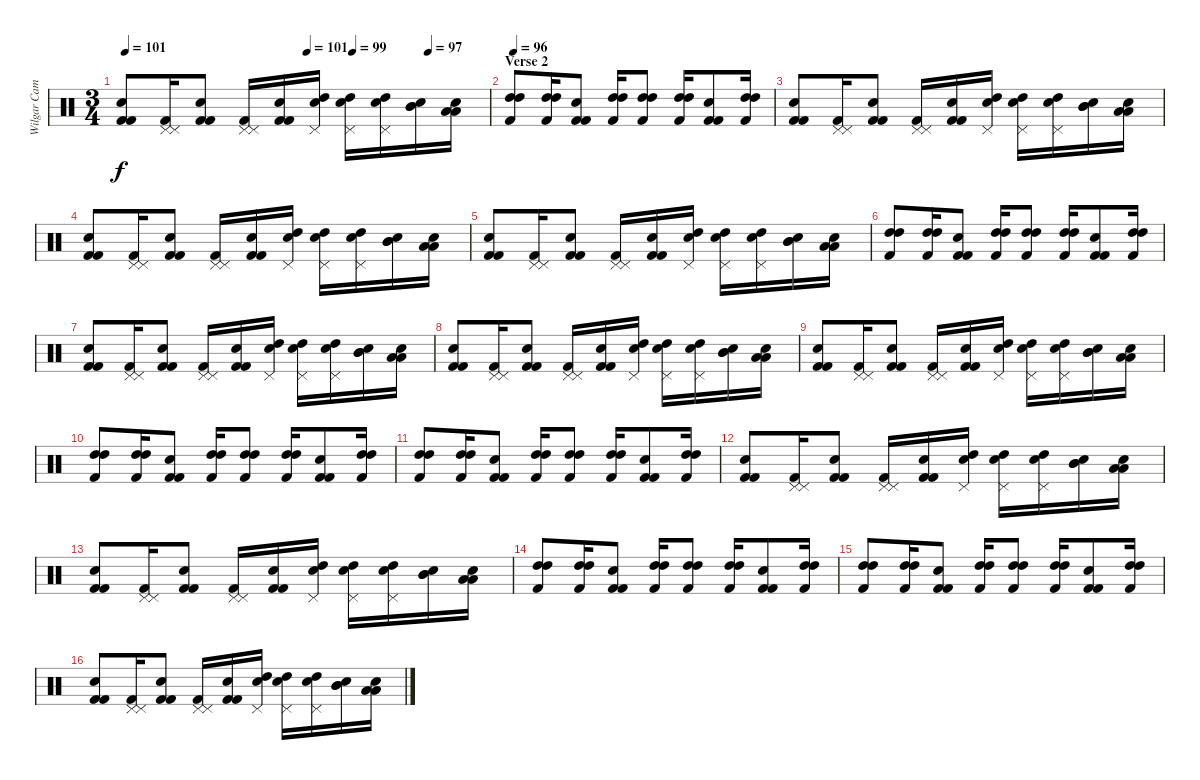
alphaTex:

\track ("Wilgar Campbell" "Wilgar Cam") {instrument percussion}
\staff {score}
\articulation defaults
\ts (3 4)
\tempo 101
\tempo (101 0.5)
\tempo (99 0.625)
\tempo (97 0.8333333333333334)
\clef neutral
\ks c
("Electric Snare (hit)" "Kick (hit) 2" "Kick (hit) 2").8{dy f} ("Pedal Hi-Hat (hit)" "Pedal Hi-Hat (hit)" "Kick (hit) 2").16 ("Snare (hit) 2" "Kick (hit) 2" "Kick (hit) 2").8 ("Pedal Hi-Hat (hit)" "Pedal Hi-Hat (hit)" "Kick (hit) 2").16 ("Snare (hit) 2" "Kick (hit) 2" "Kick (hit) 2").16 ("Electric Snare (hit)" "Pedal Hi-Hat (hit)" "High Tom (hit)").16 ("Electric Snare (hit)" "Pedal Hi-Hat (hit)" "High Tom (hit)").16 ("Electric Snare (hit)" "Pedal Hi-Hat (hit)" "High Tom (hit)").16 ("Electric Snare (hit)" "Mid Tom (hit)" "Mid Tom (hit)").16 ("Electric Snare (hit)" "Low Tom (hit)" "Low Tom (hit)").16 |
\section ("" "Verse 2")
\tempo 96
("High Tom (hit)" "High Tom (hit)" "Kick (hit) 2").8 ("High Tom (hit)" "High Tom (hit)" "Kick (hit) 2").16 ("Snare (hit) 2" "Kick (hit) 2" "Kick (hit) 2").8 ("High Tom (hit)" "High Tom (hit)" "Kick (hit) 2").16 ("High Tom (hit)" "High Tom (hit)" "Kick (hit) 2").8 ("High Tom (hit)" "High Tom (hit)" "Kick (hit) 2").16 ("Snare (hit) 2" "Kick (hit) 2" "Kick (hit) 2").8 ("High Tom (hit)" "High Tom (hit)" "Kick (hit) 2").16 |
("Electric Snare (hit)" "Kick (hit) 2" "Kick (hit) 2").8 ("Pedal Hi-Hat (hit)" "Pedal Hi-Hat (hit)" "Kick (hit) 2").16 ("Snare (hit) 2" "Kick (hit) 2" "Kick (hit) 2").8 ("Pedal Hi-Hat (hit)" "Pedal Hi-Hat (hit)" "Kick (hit) 2").16 ("Snare (hit) 2" "Kick (hit) 2" "Kick (hit) 2").16 ("Electric Snare (hit)" "Pedal Hi-Hat (hit)" "High Tom (hit)").16 ("Electric Snare (hit)" "Pedal Hi-Hat (hit)" "High Tom (hit)").16 ("Electric Snare (hit)" "Pedal Hi-Hat (hit)" "High Tom (hit)").16 ("Electric Snare (hit)" "Mid Tom (hit)" "Mid Tom (hit)").16 ("Electric Snare (hit)" "Low Tom (hit)" "Low Tom (hit)").16 |
("Electric Snare (hit)" "Kick (hit) 2" "Kick (hit) 2").8 ("Pedal Hi-Hat (hit)" "Pedal Hi-Hat (hit)" "Kick (hit) 2").16 ("Snare (hit) 2" "Kick (hit) 2" "Kick (hit) 2").8 ("Pedal Hi-Hat (hit)" "Pedal Hi-Hat (hit)" "Kick (hit) 2").16 ("Snare (hit) 2" "Kick (hit) 2" "Kick (hit) 2").16 ("Electric Snare (hit)" "Pedal Hi-Hat (hit)" "High Tom (hit)").16 ("Electric Snare (hit)" "Pedal Hi-Hat (hit)" "High Tom (hit)").16 ("Electric Snare (hit)" "Pedal Hi-Hat (hit)" "High Tom (hit)").16 ("Electric Snare (hit)" "Mid Tom (hit)" "Mid Tom (hit)").16 ("Electric Snare (hit)" "Low Tom (hit)" "Low Tom (hit)").16 |
("Electric Snare (hit)" "Kick (hit) 2" "Kick (hit) 2").8 ("Pedal Hi-Hat (hit)" "Pedal Hi-Hat (hit)" "Kick (hit) 2").16 ("Snare (hit) 2" "Kick (hit) 2" "Kick (hit) 2").8 ("Pedal Hi-Hat (hit)" "Pedal Hi-Hat (hit)" "Kick (hit) 2").16 ("Snare (hit) 2" "Kick (hit) 2" "Kick (hit) 2").16 ("Electric Snare (hit)" "Pedal Hi-Hat (hit)" "High Tom (hit)").16 ("Electric Snare (hit)" "Pedal Hi-Hat (hit)" "High Tom (hit)").16 ("Electric Snare (hit)" "Pedal Hi-Hat (hit)" "High Tom (hit)").16 ("Electric Snare (hit)" "Mid Tom (hit)" "Mid Tom (hit)").16 ("Electric Snare (hit)" "Low Tom (hit)" "Low Tom (hit)").16 |
("High Tom (hit)" "High Tom (hit)" "Kick (hit) 2").8 ("High Tom (hit)" "High Tom (hit)" "Kick (hit) 2").16 ("Snare (hit) 2" "Kick (hit) 2" "Kick (hit) 2").8 ("High Tom (hit)" "High Tom (hit)" "Kick (hit) 2").16 ("High Tom (hit)" "High Tom (hit)" "Kick (hit) 2").8 ("High Tom (hit)" "High Tom (hit)" "Kick (hit) 2").16 ("Snare (hit) 2" "Kick (hit) 2" "Kick (hit) 2").8 ("High Tom (hit)" "High Tom (hit)" "Kick (hit) 2").16 |
("Electric Snare (hit)" "Kick (hit) 2" "Kick (hit) 2").8 ("Pedal Hi-Hat (hit)" "Pedal Hi-Hat (hit)" "Kick (hit) 2").16 ("Snare (hit) 2" "Kick (hit) 2" "Kick (hit) 2").8 ("Pedal Hi-Hat (hit)" "Pedal Hi-Hat (hit)" "Kick (hit) 2").16 ("Snare (hit) 2" "Kick (hit) 2" "Kick (hit) 2").16 ("Electric Snare (hit)" "Pedal Hi-Hat (hit)" "High Tom (hit)").16 ("Electric Snare (hit)" "Pedal Hi-Hat (hit)" "High Tom (hit)").16 ("Electric Snare (hit)" "Pedal Hi-Hat (hit)" "High Tom (hit)").16 ("Electric Snare (hit)" "Mid Tom (hit)" "Mid Tom (hit)").16 ("Electric Snare (hit)" "Low Tom (hit)" "Low Tom (hit)").16 |
("Electric Snare (hit)" "Kick (hit) 2" "Kick (hit) 2").8 ("Pedal Hi-Hat (hit)" "Pedal Hi-Hat (hit)" "Kick (hit) 2").16 ("Snare (hit) 2" "Kick (hit) 2" "Kick (hit) 2").8 ("Pedal Hi-Hat (hit)" "Pedal Hi-Hat (hit)" "Kick (hit) 2").16 ("Snare (hit) 2" "Kick (hit) 2" "Kick (hit) 2").16 ("Electric Snare (hit)" "Pedal Hi-Hat (hit)" "High Tom (hit)").16 ("Electric Snare (hit)" "Pedal Hi-Hat (hit)" "High Tom (hit)").16 ("Electric Snare (hit)" "Pedal Hi-Hat (hit)" "High Tom (hit)").16 ("Electric Snare (hit)" "Mid Tom (hit)" "Mid Tom (hit)").16 ("Electric Snare (hit)" "Low Tom (hit)" "Low Tom (hit)").16 |
("Electric Snare (hit)" "Kick (hit) 2" "Kick (hit) 2").8 ("Pedal Hi-Hat (hit)" "Pedal Hi-Hat (hit)" "Kick (hit) 2").16 ("Snare (hit) 2" "Kick (hit) 2" "Kick (hit) 2").8 ("Pedal Hi-Hat (hit)" "Pedal Hi-Hat (hit)" "Kick (hit) 2").16 ("Snare (hit) 2" "Kick (hit) 2" "Kick (hit) 2").16 ("Electric Snare (hit)" "Pedal Hi-Hat (hit)" "High Tom (hit)").16 ("Electric Snare (hit)" "Pedal Hi-Hat (hit)" "High Tom (hit)").16 ("Electric Snare (hit)" "Pedal Hi-Hat (hit)" "High Tom (hit)").16 ("Electric Snare (hit)" "Mid Tom (hit)" "Mid Tom (hit)").16 ("Electric Snare (hit)" "Low Tom (hit)" "Low Tom (hit)").16 |
("High Tom (hit)" "High Tom (hit)" "Kick (hit) 2").8 ("High Tom (hit)" "High Tom (hit)" "Kick (hit) 2").16 ("Snare (hit) 2" "Kick (hit) 2" "Kick (hit) 2").8 ("High Tom (hit)" "High Tom (hit)" "Kick (hit) 2").16 ("High Tom (hit)" "High Tom (hit)" "Kick (hit) 2").8 ("High Tom (hit)" "High Tom (hit)" "Kick (hit) 2").16 ("Snare (hit) 2" "Kick (hit) 2" "Kick (hit) 2").8 ("High Tom (hit)" "High Tom (hit)" "Kick (hit) 2").16 |
("High Tom (hit)" "High Tom (hit)" "Kick (hit) 2").8 ("High Tom (hit)" "High Tom (hit)" "Kick (hit) 2").16 ("Snare (hit) 2" "Kick (hit) 2" "Kick (hit) 2").8 ("High Tom (hit)" "High Tom (hit)" "Kick (hit) 2").16 ("High Tom (hit)" "High Tom (hit)" "Kick (hit) 2").8 ("High Tom (hit)" "High Tom (hit)" "Kick (hit) 2").16 ("Snare (hit) 2" "Kick (hit) 2" "Kick (hit) 2").8 ("High Tom (hit)" "High Tom (hit)" "Kick (hit) 2").16 |
("Electric Snare (hit)" "Kick (hit) 2" "Kick (hit) 2").8 ("Pedal Hi-Hat (hit)" "Pedal Hi-Hat (hit)" "Kick (hit) 2").16 ("Snare (hit) 2" "Kick (hit) 2" "Kick (hit) 2").8 ("Pedal Hi-Hat (hit)" "Pedal Hi-Hat (hit)" "Kick (hit) 2").16 ("Snare (hit) 2" "Kick (hit) 2" "Kick (hit) 2").16 ("Electric Snare (hit)" "Pedal Hi-Hat (hit)" "High Tom (hit)").16 ("Electric Snare (hit)" "Pedal Hi-Hat (hit)" "High Tom (hit)").16 ("Electric Snare (hit)" "Pedal Hi-Hat (hit)" "High Tom (hit)").16 ("Electric Snare (hit)" "Mid Tom (hit)" "Mid Tom (hit)").16 ("Electric Snare (hit)" "Low Tom (hit)" "Low Tom (hit)").16 |
("Electric Snare (hit)" "Kick (hit) 2" "Kick (hit) 2").8 ("Pedal Hi-Hat (hit)" "Pedal Hi-Hat (hit)" "Kick (hit) 2").16 ("Snare (hit) 2" "Kick (hit) 2" "Kick (hit) 2").8 ("Pedal Hi-Hat (hit)" "Pedal Hi-Hat (hit)" "Kick (hit) 2").16 ("Snare (hit) 2" "Kick (hit) 2" "Kick (hit) 2").16 ("Electric Snare (hit)" "Pedal Hi-Hat (hit)" "High Tom (hit)").16 ("Electric Snare (hit)" "Pedal Hi-Hat (hit)" "High Tom (hit)").16 ("Electric Snare (hit)" "Pedal Hi-Hat (hit)" "High Tom (hit)").16 ("Electric Snare (hit)" "Mid Tom (hit)" "Mid Tom (hit)").16 ("Electric Snare (hit)" "Low Tom (hit)" "Low Tom (hit)").16 |
("High Tom (hit)" "High Tom (hit)" "Kick (hit) 2").8 ("High Tom (hit)" "High Tom (hit)" "Kick (hit) 2").16 ("Snare (hit) 2" "Kick (hit) 2" "Kick (hit) 2").8 ("High Tom (hit)" "High Tom (hit)" "Kick (hit) 2").16 ("High Tom (hit)" "High Tom (hit)" "Kick (hit) 2").8 ("High Tom (hit)" "High Tom (hit)" "Kick (hit) 2").16 ("Snare (hit) 2" "Kick (hit) 2" "Kick (hit) 2").8 ("High Tom (hit)" "High Tom (hit)" "Kick (hit) 2").16 |
("High Tom (hit)" "High Tom (hit)" "Kick (hit) 2").8 ("High Tom (hit)" "High Tom (hit)" "Kick (hit) 2").16 ("Snare (hit) 2" "Kick (hit) 2" "Kick (hit) 2").8 ("High Tom (hit)" "High Tom (hit)" "Kick (hit) 2").16 ("High Tom (hit)" "High Tom (hit)" "Kick (hit) 2").8 ("High Tom (hit)" "High Tom (hit)" "Kick (hit) 2").16 ("Snare (hit) 2" "Kick (hit) 2" "Kick (hit) 2").8 ("High Tom (hit)" "High Tom (hit)" "Kick (hit) 2").16 |
("Electric Snare (hit)" "Kick (hit) 2" "Kick (hit) 2").8 ("Pedal Hi-Hat (hit)" "Pedal Hi-Hat (hit)" "Kick (hit) 2").16 ("Snare (hit) 2" "Kick (hit) 2" "Kick (hit) 2").8 ("Pedal Hi-Hat (hit)" "Pedal Hi-Hat (hit)" "Kick (hit) 2").16 ("Snare (hit) 2" "Kick (hit) 2" "Kick (hit) 2").16 ("Electric Snare (hit)" "Pedal Hi-Hat (hit)" "High Tom (hit)").16 ("Electric Snare (hit)" "Pedal Hi-Hat (hit)" "High Tom (hit)").16 ("Electric Snare (hit)" "Pedal Hi-Hat (hit)" "High Tom (hit)").16 ("Electric Snare (hit)" "Mid Tom (hit)" "Mid Tom (hit)").16 ("Electric Snare (hit)" "Low Tom (hit)" "Low Tom (hit)").16
